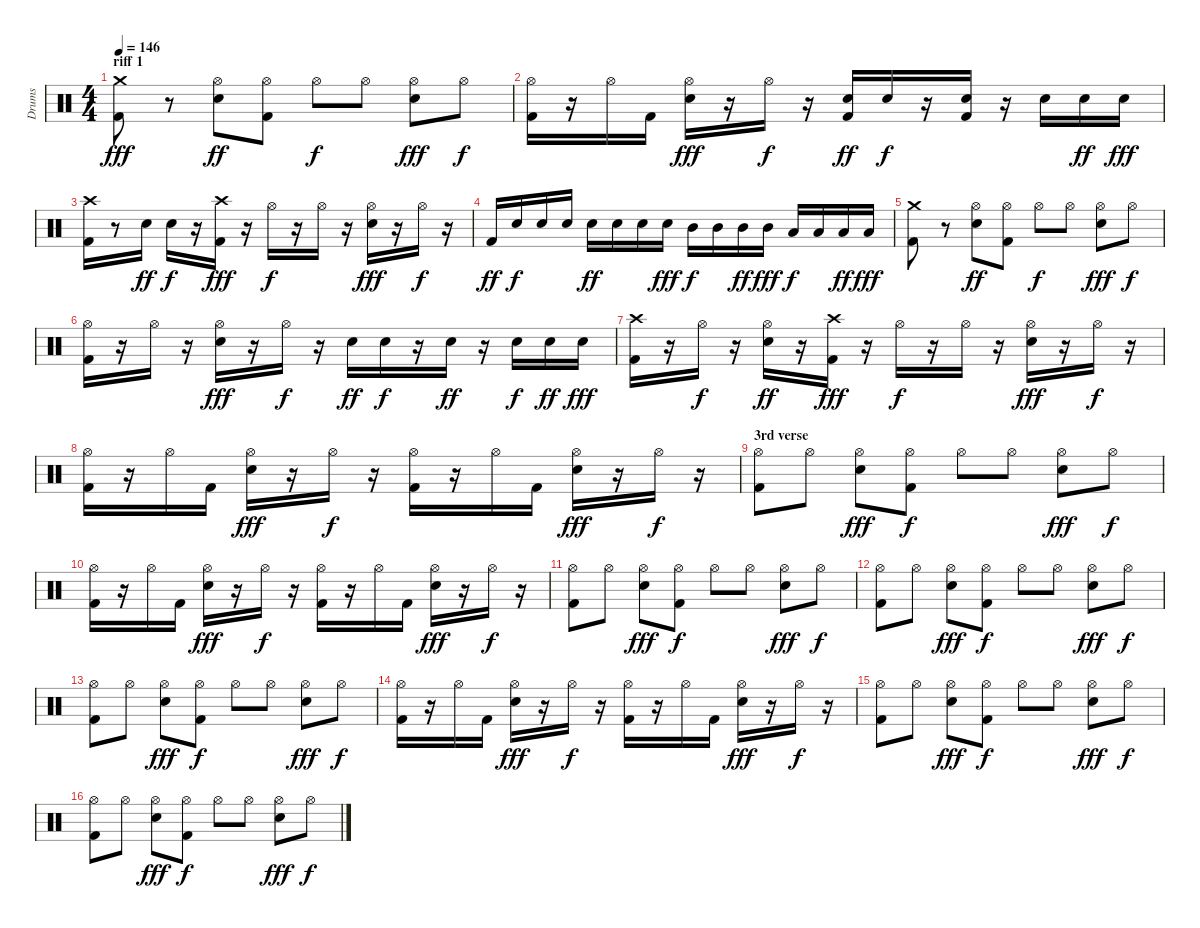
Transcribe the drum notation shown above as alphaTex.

\track ("Drums" "Drums") {instrument percussion}
\staff {score}
\articulation defaults
\ts (4 4)
\section ("" "riff 1")
\tempo 146
\clef neutral
\ks c
("Kick (hit) 2" "Crash medium (hit)").8{dy fff} r.8 ("Hi-Hat (open)" "Snare (hit) 2").8{dy ff} ("Hi-Hat (open)" "Kick (hit) 2").8 "Hi-Hat (open)".8{dy f} "Hi-Hat (open)".8 ("Snare (hit) 2" "Hi-Hat (open)").8{dy fff} "Hi-Hat (open)".8{dy f} |
("Kick (hit) 2" "Hi-Hat (open)").16 r.16 "Hi-Hat (open)".16 "Kick (hit) 2".16 ("Snare (hit) 2" "Hi-Hat (open)").16{dy fff} r.16 "Hi-Hat (open)".16{dy f} r.16 ("Snare (hit) 2" "Kick (hit) 2").16{dy ff} "Snare (hit) 2".16{dy f} r.16 ("Snare (hit) 2" "Kick (hit) 2").16 r.16 "Snare (hit) 2".16 "Snare (hit) 2".16{dy ff} "Snare (hit) 2".16{dy fff} |
("Kick (hit) 2" "Crash high (hit)").16 r.8 "Snare (hit) 2".16{dy ff} "Snare (hit) 2".16{dy f} r.16 ("Kick (hit) 2" "Crash high (hit)").16{dy fff} r.16 "Hi-Hat (open)".16{dy f} r.16 "Hi-Hat (open)".16 r.16 ("Snare (hit) 2" "Hi-Hat (open)").16{dy fff} r.16 "Hi-Hat (open)".16{dy f} r.16 |
"Kick (hit) 2".16{dy ff} "Snare (hit) 2".16{dy f} "Snare (hit) 2".16 "Snare (hit) 2".16 "Snare (hit) 2".16{dy ff} "Snare (hit) 2".16 "Snare (hit) 2".16 "Snare (hit) 2".16{dy fff} "Mid Tom (hit)".16{dy f} "Mid Tom (hit)".16 "Mid Tom (hit)".16{dy ff} "Mid Tom (hit)".16{dy fff} "Low Tom (hit)".16{dy f} "Low Tom (hit)".16 "Low Tom (hit)".16{dy ff} "Low Tom (hit)".16{dy fff} |
("Kick (hit) 2" "Crash medium (hit)").8 r.8 ("Hi-Hat (open)" "Snare (hit) 2").8{dy ff} ("Hi-Hat (open)" "Kick (hit) 2").8 "Hi-Hat (open)".8{dy f} "Hi-Hat (open)".8 ("Snare (hit) 2" "Hi-Hat (open)").8{dy fff} "Hi-Hat (open)".8{dy f} |
("Kick (hit) 2" "Hi-Hat (open)").16 r.16 "Hi-Hat (open)".16 r.16 ("Snare (hit) 2" "Hi-Hat (open)").16{dy fff} r.16 "Hi-Hat (open)".16{dy f} r.16 "Snare (hit) 2".16{dy ff} "Snare (hit) 2".16{dy f} r.16 "Snare (hit) 2".16{dy ff} r.16 "Snare (hit) 2".16{dy f} "Snare (hit) 2".16{dy ff} "Snare (hit) 2".16{dy fff} |
("Kick (hit) 2" "Crash high (hit)").16 r.16 "Hi-Hat (open)".16{dy f} r.16 ("Hi-Hat (open)" "Snare (hit) 2").16{dy ff} r.16 ("Kick (hit) 2" "Crash high (hit)").16{dy fff} r.16 "Hi-Hat (open)".16{dy f} r.16 "Hi-Hat (open)".16 r.16 ("Snare (hit) 2" "Hi-Hat (open)").16{dy fff} r.16 "Hi-Hat (open)".16{dy f} r.16 |
("Kick (hit) 2" "Hi-Hat (open)").16 r.16 "Hi-Hat (open)".16 "Kick (hit) 2".16 ("Snare (hit) 2" "Hi-Hat (open)").16{dy fff} r.16 "Hi-Hat (open)".16{dy f} r.16 ("Kick (hit) 2" "Hi-Hat (open)").16 r.16 "Hi-Hat (open)".16 "Kick (hit) 2".16 ("Snare (hit) 2" "Hi-Hat (open)").16{dy fff} r.16 "Hi-Hat (open)".16{dy f} r.16 |
\section ("" "3rd verse")
("Kick (hit) 2" "Hi-Hat (open)").8 "Hi-Hat (open)".8 ("Snare (hit) 2" "Hi-Hat (open)").8{dy fff} ("Kick (hit) 2" "Hi-Hat (open)").8{dy f} "Hi-Hat (open)".8 "Hi-Hat (open)".8 ("Snare (hit) 2" "Hi-Hat (open)").8{dy fff} "Hi-Hat (open)".8{dy f} |
("Kick (hit) 2" "Hi-Hat (open)").16 r.16 "Hi-Hat (open)".16 "Kick (hit) 2".16 ("Snare (hit) 2" "Hi-Hat (open)").16{dy fff} r.16 "Hi-Hat (open)".16{dy f} r.16 ("Kick (hit) 2" "Hi-Hat (open)").16 r.16 "Hi-Hat (open)".16 "Kick (hit) 2".16 ("Snare (hit) 2" "Hi-Hat (open)").16{dy fff} r.16 "Hi-Hat (open)".16{dy f} r.16 |
("Kick (hit) 2" "Hi-Hat (open)").8 "Hi-Hat (open)".8 ("Snare (hit) 2" "Hi-Hat (open)").8{dy fff} ("Kick (hit) 2" "Hi-Hat (open)").8{dy f} "Hi-Hat (open)".8 "Hi-Hat (open)".8 ("Snare (hit) 2" "Hi-Hat (open)").8{dy fff} "Hi-Hat (open)".8{dy f} |
("Kick (hit) 2" "Hi-Hat (open)").8 "Hi-Hat (open)".8 ("Snare (hit) 2" "Hi-Hat (open)").8{dy fff} ("Kick (hit) 2" "Hi-Hat (open)").8{dy f} "Hi-Hat (open)".8 "Hi-Hat (open)".8 ("Snare (hit) 2" "Hi-Hat (open)").8{dy fff} "Hi-Hat (open)".8{dy f} |
("Kick (hit) 2" "Hi-Hat (open)").8 "Hi-Hat (open)".8 ("Snare (hit) 2" "Hi-Hat (open)").8{dy fff} ("Kick (hit) 2" "Hi-Hat (open)").8{dy f} "Hi-Hat (open)".8 "Hi-Hat (open)".8 ("Snare (hit) 2" "Hi-Hat (open)").8{dy fff} "Hi-Hat (open)".8{dy f} |
("Kick (hit) 2" "Hi-Hat (open)").16 r.16 "Hi-Hat (open)".16 "Kick (hit) 2".16 ("Snare (hit) 2" "Hi-Hat (open)").16{dy fff} r.16 "Hi-Hat (open)".16{dy f} r.16 ("Kick (hit) 2" "Hi-Hat (open)").16 r.16 "Hi-Hat (open)".16 "Kick (hit) 2".16 ("Snare (hit) 2" "Hi-Hat (open)").16{dy fff} r.16 "Hi-Hat (open)".16{dy f} r.16 |
("Kick (hit) 2" "Hi-Hat (open)").8 "Hi-Hat (open)".8 ("Snare (hit) 2" "Hi-Hat (open)").8{dy fff} ("Kick (hit) 2" "Hi-Hat (open)").8{dy f} "Hi-Hat (open)".8 "Hi-Hat (open)".8 ("Snare (hit) 2" "Hi-Hat (open)").8{dy fff} "Hi-Hat (open)".8{dy f} |
("Kick (hit) 2" "Hi-Hat (open)").8 "Hi-Hat (open)".8 ("Snare (hit) 2" "Hi-Hat (open)").8{dy fff} ("Kick (hit) 2" "Hi-Hat (open)").8{dy f} "Hi-Hat (open)".8 "Hi-Hat (open)".8 ("Snare (hit) 2" "Hi-Hat (open)").8{dy fff} "Hi-Hat (open)".8{dy f}
